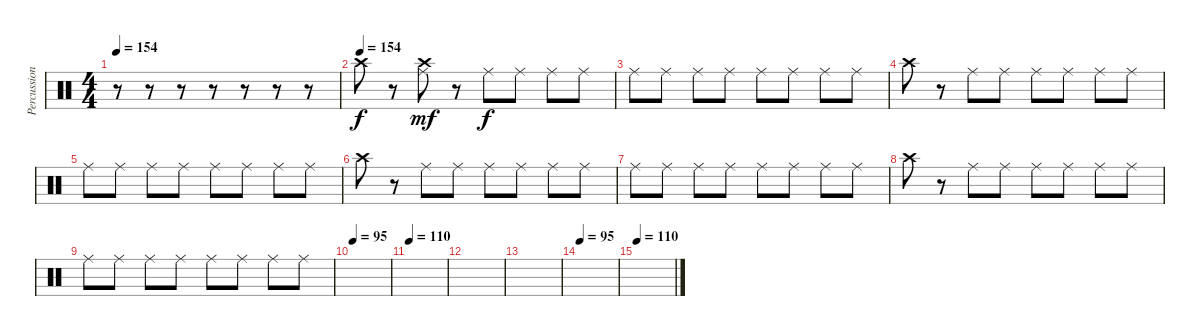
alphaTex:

\track ("Percussion" "Percussion") {instrument percussion}
\staff {score}
\articulation defaults
\ts (4 4)
\tempo 154
\clef neutral
\ks c
r.8{dy f} r.8 r.8 r.8 r.8 r.8 r.8 |
\tempo (154)
"Crash high (hit)".8 r.8 ("Ride (middle)" "Crash high (hit)").8{dy mf} r.8 "Ride (middle)".8{dy f} "Ride (middle)".8 "Ride (middle)".8 "Ride (middle)".8 |
"Ride (middle)".8 "Ride (middle)".8 "Ride (middle)".8 "Ride (middle)".8 "Ride (middle)".8 "Ride (middle)".8 "Ride (middle)".8 "Ride (middle)".8 |
"Crash high (hit)".8 r.8 "Ride (middle)".8 "Ride (middle)".8 "Ride (middle)".8 "Ride (middle)".8 "Ride (middle)".8 "Ride (middle)".8 |
"Ride (middle)".8 "Ride (middle)".8 "Ride (middle)".8 "Ride (middle)".8 "Ride (middle)".8 "Ride (middle)".8 "Ride (middle)".8 "Ride (middle)".8 |
"Crash high (hit)".8 r.8 "Ride (middle)".8 "Ride (middle)".8 "Ride (middle)".8 "Ride (middle)".8 "Ride (middle)".8 "Ride (middle)".8 |
"Ride (middle)".8 "Ride (middle)".8 "Ride (middle)".8 "Ride (middle)".8 "Ride (middle)".8 "Ride (middle)".8 "Ride (middle)".8 "Ride (middle)".8 |
"Crash high (hit)".8 r.8 "Ride (middle)".8 "Ride (middle)".8 "Ride (middle)".8 "Ride (middle)".8 "Ride (middle)".8 "Ride (middle)".8 |
"Ride (middle)".8 "Ride (middle)".8 "Ride (middle)".8 "Ride (middle)".8 "Ride (middle)".8 "Ride (middle)".8 "Ride (middle)".8 "Ride (middle)".8 |
\tempo 95
|
\tempo 110
|
|
|
\tempo 95
|
\tempo 110
